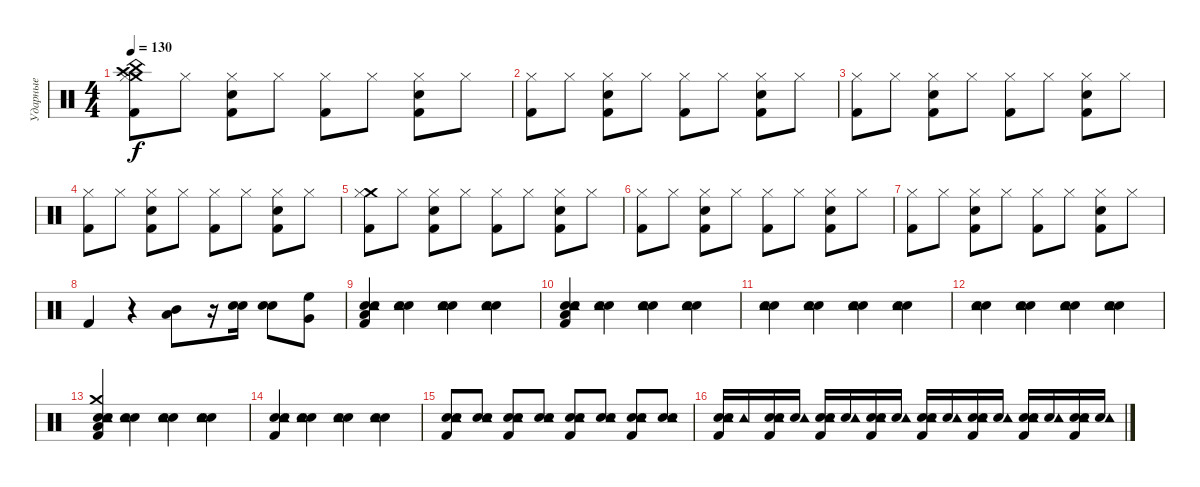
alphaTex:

\track ("Ударные" "Ударные") {solo instrument percussion}
\staff {score}
\articulation defaults
\ts (4 4)
\tempo 130
\clef neutral
\ks c
("Kick (hit) 2" "Crash medium (hit)" "China (hit)" "Crash high (hit)" "Hi-Hat (closed)").8{dy f} "Hi-Hat (closed)".8 ("Kick (hit) 2" "Hand Clap (hit)" "Hi-Hat (closed)").8 "Hi-Hat (closed)".8 ("Kick (hit) 2" "Hi-Hat (closed)").8 "Hi-Hat (closed)".8 ("Kick (hit) 2" "Hand Clap (hit)" "Hi-Hat (closed)").8 "Hi-Hat (closed)".8 |
("Kick (hit) 2" "Hi-Hat (closed)").8 "Hi-Hat (closed)".8 ("Kick (hit) 2" "Hand Clap (hit)" "Hi-Hat (closed)").8 "Hi-Hat (closed)".8 ("Kick (hit) 2" "Hi-Hat (closed)").8 "Hi-Hat (closed)".8 ("Kick (hit) 2" "Hand Clap (hit)" "Hi-Hat (closed)").8 "Hi-Hat (closed)".8 |
("Kick (hit) 2" "Hi-Hat (closed)").8 "Hi-Hat (closed)".8 ("Kick (hit) 2" "Hand Clap (hit)" "Hi-Hat (closed)").8 "Hi-Hat (closed)".8 ("Kick (hit) 2" "Hi-Hat (closed)").8 "Hi-Hat (closed)".8 ("Kick (hit) 2" "Hand Clap (hit)" "Hi-Hat (closed)").8 "Hi-Hat (closed)".8 |
("Kick (hit) 2" "Hi-Hat (closed)").8 "Hi-Hat (closed)".8 ("Kick (hit) 2" "Hand Clap (hit)" "Hi-Hat (closed)").8 "Hi-Hat (closed)".8 ("Kick (hit) 2" "Hi-Hat (closed)").8 "Hi-Hat (closed)".8 ("Kick (hit) 2" "Hand Clap (hit)" "Hi-Hat (closed)").8 "Hi-Hat (closed)".8 |
("Kick (hit) 2" "Crash medium (hit)" "Hi-Hat (closed)").8 "Hi-Hat (closed)".8 ("Kick (hit) 2" "Hand Clap (hit)" "Hi-Hat (closed)").8 "Hi-Hat (closed)".8 ("Kick (hit) 2" "Hi-Hat (closed)").8 "Hi-Hat (closed)".8 ("Kick (hit) 2" "Hand Clap (hit)" "Hi-Hat (closed)").8 "Hi-Hat (closed)".8 |
("Kick (hit) 2" "Hi-Hat (closed)").8 "Hi-Hat (closed)".8 ("Kick (hit) 2" "Hand Clap (hit)" "Hi-Hat (closed)").8 "Hi-Hat (closed)".8 ("Kick (hit) 2" "Hi-Hat (closed)").8 "Hi-Hat (closed)".8 ("Kick (hit) 2" "Hand Clap (hit)" "Hi-Hat (closed)").8 "Hi-Hat (closed)".8 |
("Kick (hit) 2" "Hi-Hat (closed)").8 "Hi-Hat (closed)".8 ("Kick (hit) 2" "Hand Clap (hit)" "Hi-Hat (closed)").8 "Hi-Hat (closed)".8 ("Kick (hit) 2" "Hi-Hat (closed)").8 "Hi-Hat (closed)".8 ("Kick (hit) 2" "Hand Clap (hit)" "Hi-Hat (closed)").8 "Hi-Hat (closed)".8 |
"Kick (hit) 2".4 r.4 ("Mid Tom (hit)" "Low Floor Tom (hit)").8 r.16 ("Hand Clap (hit)" "Electric Snare (hit)").16 ("Hand Clap (hit)" "Electric Snare (hit)").8 ("Very Low Tom (hit)" "High Floor Tom (hit)").8 |
("Low Tom (hit)" "Kick (hit) 2" "Hand Clap (hit)" "Snare (hit) 2" "Tambourine (hit)").4 ("Hand Clap (hit)" "Snare (hit) 2" "Tambourine (hit)").4 ("Hand Clap (hit)" "Snare (hit) 2" "Tambourine (hit)").4 ("Hand Clap (hit)" "Snare (hit) 2" "Tambourine (hit)").4 |
("Kick (hit) 2" "Low Floor Tom (hit)" "Hand Clap (hit)" "Snare (hit) 2" "Tambourine (hit)").4 ("Hand Clap (hit)" "Snare (hit) 2" "Tambourine (hit)").4 ("Hand Clap (hit)" "Snare (hit) 2" "Tambourine (hit)").4 ("Hand Clap (hit)" "Snare (hit) 2" "Tambourine (hit)").4 |
("Hand Clap (hit)" "Snare (hit) 2" "Tambourine (hit)").4 ("Hand Clap (hit)" "Snare (hit) 2" "Tambourine (hit)").4 ("Hand Clap (hit)" "Snare (hit) 2" "Tambourine (hit)").4 ("Hand Clap (hit)" "Snare (hit) 2" "Tambourine (hit)").4 |
("Hand Clap (hit)" "Snare (hit) 2" "Tambourine (hit)").4 ("Hand Clap (hit)" "Snare (hit) 2" "Tambourine (hit)").4 ("Hand Clap (hit)" "Snare (hit) 2" "Tambourine (hit)").4 ("Hand Clap (hit)" "Snare (hit) 2" "Tambourine (hit)").4 |
("Low Floor Tom (hit)" "Kick (hit) 2" "Hand Clap (hit)" "Crash medium (hit)" "Snare (hit) 2" "Tambourine (hit)").4 ("Hand Clap (hit)" "Snare (hit) 2" "Tambourine (hit)").4 ("Hand Clap (hit)" "Snare (hit) 2" "Tambourine (hit)").4 ("Hand Clap (hit)" "Snare (hit) 2" "Tambourine (hit)").4 |
("Kick (hit) 2" "Hand Clap (hit)" "Snare (hit) 2" "Tambourine (hit)").4 ("Hand Clap (hit)" "Snare (hit) 2" "Tambourine (hit)").4 ("Hand Clap (hit)" "Snare (hit) 2" "Tambourine (hit)").4 ("Hand Clap (hit)" "Snare (hit) 2" "Tambourine (hit)").4 |
("Kick (hit) 2" "Hand Clap (hit)" "Snare (hit) 2" "Tambourine (hit)").8{volume 16} ("Hand Clap (hit)" "Snare (hit) 2" "Tambourine (hit)").8 ("Kick (hit) 2" "Hand Clap (hit)" "Snare (hit) 2" "Tambourine (hit)").8 ("Hand Clap (hit)" "Snare (hit) 2" "Tambourine (hit)").8 ("Kick (hit) 2" "Hand Clap (hit)" "Snare (hit) 2" "Tambourine (hit)").8 ("Hand Clap (hit)" "Snare (hit) 2" "Tambourine (hit)").8 ("Kick (hit) 2" "Hand Clap (hit)" "Snare (hit) 2" "Tambourine (hit)").8 ("Hand Clap (hit)" "Snare (hit) 2" "Tambourine (hit)").8 |
("Kick (hit) 2" "Hand Clap (hit)" "Snare (hit) 2" "Tambourine (hit)").16 "Tambourine (hit)".16 ("Kick (hit) 2" "Hand Clap (hit)" "Snare (hit) 2" "Tambourine (hit)").16 ("Hand Clap (hit)" "Tambourine (hit)").16 ("Kick (hit) 2" "Hand Clap (hit)" "Snare (hit) 2" "Tambourine (hit)").16 ("Hand Clap (hit)" "Tambourine (hit)").16 ("Kick (hit) 2" "Hand Clap (hit)" "Snare (hit) 2" "Tambourine (hit)").16 ("Hand Clap (hit)" "Tambourine (hit)").16 ("Kick (hit) 2" "Hand Clap (hit)" "Snare (hit) 2" "Tambourine (hit)").16 ("Hand Clap (hit)" "Tambourine (hit)").16 ("Kick (hit) 2" "Hand Clap (hit)" "Snare (hit) 2" "Tambourine (hit)").16 ("Hand Clap (hit)" "Tambourine (hit)").16 ("Kick (hit) 2" "Hand Clap (hit)" "Snare (hit) 2" "Tambourine (hit)").16 ("Hand Clap (hit)" "Tambourine (hit)").16 ("Kick (hit) 2" "Hand Clap (hit)" "Snare (hit) 2" "Tambourine (hit)").16 ("Hand Clap (hit)" "Tambourine (hit)").16
